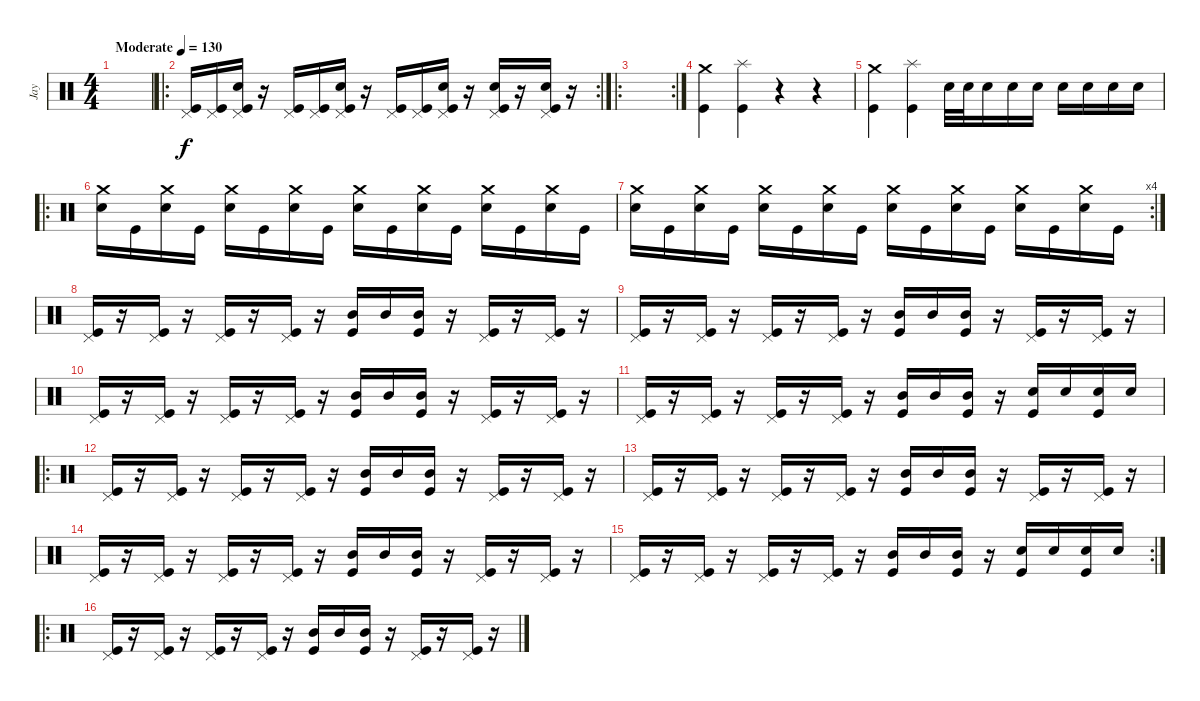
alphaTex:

\track ("Jay" "Jay") {instrument percussion}
\staff {score}
\articulation defaults
\ts (4 4)
\tempo (130 "Moderate")
\clef neutral
\ks c
|
\ro
\rc 2
("Pedal Hi-Hat (hit)" "Kick (hit)").16 ("Pedal Hi-Hat (hit)" "Kick (hit)").16 ("Snare (hit) 2" "Pedal Hi-Hat (hit)" "Kick (hit)").16 r.16 ("Pedal Hi-Hat (hit)" "Kick (hit)").16 ("Pedal Hi-Hat (hit)" "Kick (hit)").16 ("Snare (hit) 2" "Pedal Hi-Hat (hit)" "Kick (hit)").16 r.16 ("Pedal Hi-Hat (hit)" "Kick (hit)").16 ("Pedal Hi-Hat (hit)" "Kick (hit)").16 ("Snare (hit) 2" "Pedal Hi-Hat (hit)" "Kick (hit)").16 r.16 ("Snare (hit) 2" "Pedal Hi-Hat (hit)" "Kick (hit)").16 r.16 ("Snare (hit) 2" "Pedal Hi-Hat (hit)" "Kick (hit)").16 r.16 |
\ro
\rc 2
|
("Crash medium (hit)" "Kick (hit)").4 ("Splash (hit)" "Kick (hit)").4 r.4 r.4 |
("Crash medium (hit)" "Kick (hit)").4 ("Splash (hit)" "Kick (hit)").4 "Snare (hit) 2".32 "Snare (hit) 2".32 "Snare (hit) 2".16 "Snare (hit) 2".16 "Snare (hit) 2".16 "Snare (hit) 2".16 "Snare (hit) 2".16 "Snare (hit) 2".16 "Snare (hit) 2".16 |
\ro
("Crash medium (hit)" "Snare (hit) 2").16 "Kick (hit)".16 ("Crash medium (hit)" "Snare (hit) 2").16 "Kick (hit)".16 ("Crash medium (hit)" "Snare (hit) 2").16 "Kick (hit)".16 ("Crash medium (hit)" "Snare (hit) 2").16 "Kick (hit)".16 ("Crash medium (hit)" "Snare (hit) 2").16 "Kick (hit)".16 ("Crash medium (hit)" "Snare (hit) 2").16 "Kick (hit)".16 ("Crash medium (hit)" "Snare (hit) 2").16 "Kick (hit)".16 ("Crash medium (hit)" "Snare (hit) 2").16 "Kick (hit)".16 |
\rc 4
("Crash medium (hit)" "Snare (hit) 2").16 "Kick (hit)".16 ("Crash medium (hit)" "Snare (hit) 2").16 "Kick (hit)".16 ("Crash medium (hit)" "Snare (hit) 2").16 "Kick (hit)".16 ("Crash medium (hit)" "Snare (hit) 2").16 "Kick (hit)".16 ("Crash medium (hit)" "Snare (hit) 2").16 "Kick (hit)".16 ("Crash medium (hit)" "Snare (hit) 2").16 "Kick (hit)".16 ("Crash medium (hit)" "Snare (hit) 2").16 "Kick (hit)".16 ("Crash medium (hit)" "Snare (hit) 2").16 "Kick (hit)".16 |
("Pedal Hi-Hat (hit)" "Kick (hit)").16 r.16 ("Pedal Hi-Hat (hit)" "Kick (hit)").16 r.16 ("Pedal Hi-Hat (hit)" "Kick (hit)").16 r.16 ("Pedal Hi-Hat (hit)" "Kick (hit)").16 r.16 ("Mid Tom (hit)" "Kick (hit)").16 "Mid Tom (hit)".16 ("Mid Tom (hit)" "Kick (hit)").16 r.16 ("Pedal Hi-Hat (hit)" "Kick (hit)").16 r.16 ("Pedal Hi-Hat (hit)" "Kick (hit)").16 r.16 |
("Pedal Hi-Hat (hit)" "Kick (hit)").16 r.16 ("Pedal Hi-Hat (hit)" "Kick (hit)").16 r.16 ("Pedal Hi-Hat (hit)" "Kick (hit)").16 r.16 ("Pedal Hi-Hat (hit)" "Kick (hit)").16 r.16 ("Mid Tom (hit)" "Kick (hit)").16 "Mid Tom (hit)".16 ("Mid Tom (hit)" "Kick (hit)").16 r.16 ("Pedal Hi-Hat (hit)" "Kick (hit)").16 r.16 ("Pedal Hi-Hat (hit)" "Kick (hit)").16 r.16 |
("Pedal Hi-Hat (hit)" "Kick (hit)").16 r.16 ("Pedal Hi-Hat (hit)" "Kick (hit)").16 r.16 ("Pedal Hi-Hat (hit)" "Kick (hit)").16 r.16 ("Pedal Hi-Hat (hit)" "Kick (hit)").16 r.16 ("Mid Tom (hit)" "Kick (hit)").16 "Mid Tom (hit)".16 ("Mid Tom (hit)" "Kick (hit)").16 r.16 ("Pedal Hi-Hat (hit)" "Kick (hit)").16 r.16 ("Pedal Hi-Hat (hit)" "Kick (hit)").16 r.16 |
("Pedal Hi-Hat (hit)" "Kick (hit)").16 r.16 ("Pedal Hi-Hat (hit)" "Kick (hit)").16 r.16 ("Pedal Hi-Hat (hit)" "Kick (hit)").16 r.16 ("Pedal Hi-Hat (hit)" "Kick (hit)").16 r.16 ("Mid Tom (hit)" "Kick (hit)").16 "Mid Tom (hit)".16 ("Mid Tom (hit)" "Kick (hit)").16 r.16 ("Snare (hit) 2" "Kick (hit)").16 "Snare (hit) 2".16 ("Snare (hit) 2" "Kick (hit)").16 "Snare (hit) 2".16 |
\ro
("Pedal Hi-Hat (hit)" "Kick (hit)").16 r.16 ("Pedal Hi-Hat (hit)" "Kick (hit)").16 r.16 ("Pedal Hi-Hat (hit)" "Kick (hit)").16 r.16 ("Pedal Hi-Hat (hit)" "Kick (hit)").16 r.16 ("Mid Tom (hit)" "Kick (hit)").16 "Mid Tom (hit)".16 ("Mid Tom (hit)" "Kick (hit)").16 r.16 ("Pedal Hi-Hat (hit)" "Kick (hit)").16 r.16 ("Pedal Hi-Hat (hit)" "Kick (hit)").16 r.16 |
("Pedal Hi-Hat (hit)" "Kick (hit)").16 r.16 ("Pedal Hi-Hat (hit)" "Kick (hit)").16 r.16 ("Pedal Hi-Hat (hit)" "Kick (hit)").16 r.16 ("Pedal Hi-Hat (hit)" "Kick (hit)").16 r.16 ("Mid Tom (hit)" "Kick (hit)").16 "Mid Tom (hit)".16 ("Mid Tom (hit)" "Kick (hit)").16 r.16 ("Pedal Hi-Hat (hit)" "Kick (hit)").16 r.16 ("Pedal Hi-Hat (hit)" "Kick (hit)").16 r.16 |
("Pedal Hi-Hat (hit)" "Kick (hit)").16 r.16 ("Pedal Hi-Hat (hit)" "Kick (hit)").16 r.16 ("Pedal Hi-Hat (hit)" "Kick (hit)").16 r.16 ("Pedal Hi-Hat (hit)" "Kick (hit)").16 r.16 ("Mid Tom (hit)" "Kick (hit)").16 "Mid Tom (hit)".16 ("Mid Tom (hit)" "Kick (hit)").16 r.16 ("Pedal Hi-Hat (hit)" "Kick (hit)").16 r.16 ("Pedal Hi-Hat (hit)" "Kick (hit)").16 r.16 |
\rc 2
("Pedal Hi-Hat (hit)" "Kick (hit)").16 r.16 ("Pedal Hi-Hat (hit)" "Kick (hit)").16 r.16 ("Pedal Hi-Hat (hit)" "Kick (hit)").16 r.16 ("Pedal Hi-Hat (hit)" "Kick (hit)").16 r.16 ("Mid Tom (hit)" "Kick (hit)").16 "Mid Tom (hit)".16 ("Mid Tom (hit)" "Kick (hit)").16 r.16 ("Snare (hit) 2" "Kick (hit)").16 "Snare (hit) 2".16 ("Snare (hit) 2" "Kick (hit)").16 "Snare (hit) 2".16 |
\ro
("Pedal Hi-Hat (hit)" "Kick (hit)").16 r.16 ("Pedal Hi-Hat (hit)" "Kick (hit)").16 r.16 ("Pedal Hi-Hat (hit)" "Kick (hit)").16 r.16 ("Pedal Hi-Hat (hit)" "Kick (hit)").16 r.16 ("Mid Tom (hit)" "Kick (hit)").16 "Mid Tom (hit)".16 ("Mid Tom (hit)" "Kick (hit)").16 r.16 ("Pedal Hi-Hat (hit)" "Kick (hit)").16 r.16 ("Pedal Hi-Hat (hit)" "Kick (hit)").16 r.16
